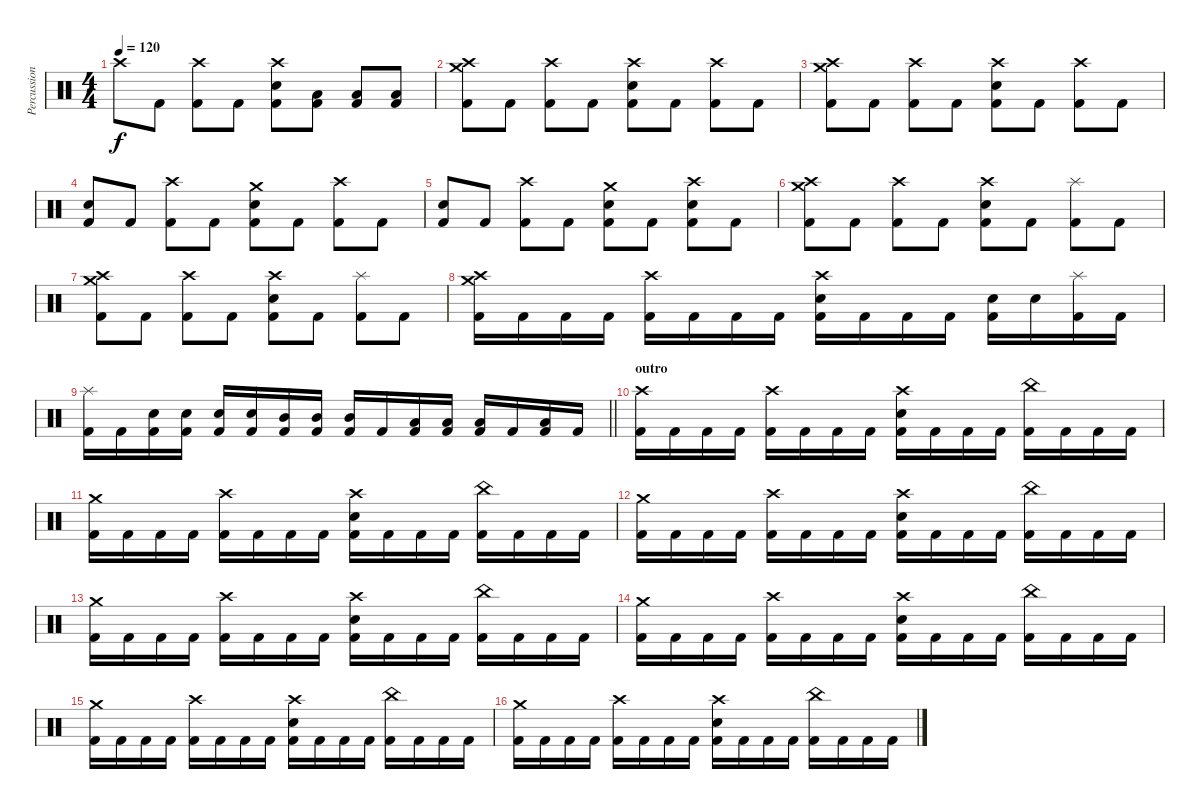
\track ("Percussion" "Percussion") {instrument percussion}
\staff {score}
\articulation defaults
\ts (4 4)
\tempo 120
\clef neutral
\ks c "Crash high (hit)".8{dy f} "Kick (hit) 2".8
("Crash high (hit)" "Kick (hit) 2").8 "Kick (hit) 2".8 ("Crash high (hit)" "Electric Snare (hit)" "Kick (hit) 2").8 ("Low Tom (hit)" "Kick (hit) 2").8 ("Low Tom (hit)" "Kick (hit) 2").8 ("Low Tom (hit)" "Kick (hit) 2").8 |
("Crash high (hit)" "Crash medium (hit)" "Kick (hit) 2").8 "Kick (hit) 2".8 ("Crash high (hit)" "Kick (hit) 2").8 "Kick (hit) 2".8 ("Crash high (hit)" "Electric Snare (hit)" "Kick (hit) 2").8 "Kick (hit) 2".8 ("Crash high (hit)" "Kick (hit) 2").8 "Kick (hit) 2".8 |
("Crash high (hit)" "Crash medium (hit)" "Kick (hit) 2").8 "Kick (hit) 2".8 ("Crash high (hit)" "Kick (hit) 2").8 "Kick (hit) 2".8 ("Crash high (hit)" "Electric Snare (hit)" "Kick (hit) 2").8 "Kick (hit) 2".8 ("Crash high (hit)" "Kick (hit) 2").8 "Kick (hit) 2".8 |
("Electric Snare (hit)" "Kick (hit) 2").8 "Kick (hit) 2".8 ("Crash high (hit)" "Kick (hit) 2").8 "Kick (hit) 2".8 ("Crash medium (hit)" "Electric Snare (hit)" "Kick (hit) 2").8 "Kick (hit) 2".8 ("Kick (hit) 2" "Crash high (hit)").8 "Kick (hit) 2".8 |
("Electric Snare (hit)" "Kick (hit) 2").8 "Kick (hit) 2".8 ("Crash high (hit)" "Kick (hit) 2").8 "Kick (hit) 2".8 ("Crash medium (hit)" "Electric Snare (hit)" "Kick (hit) 2").8 "Kick (hit) 2".8 ("Electric Snare (hit)" "Kick (hit) 2" "Crash high (hit)").8 "Kick (hit) 2".8 |
("Crash high (hit)" "Crash medium (hit)" "Kick (hit) 2").8 "Kick (hit) 2".8 ("Crash high (hit)" "Kick (hit) 2").8 "Kick (hit) 2".8 ("Crash high (hit)" "Electric Snare (hit)" "Kick (hit) 2").8 "Kick (hit) 2".8 ("Splash (hit)" "Kick (hit) 2").8 "Kick (hit) 2".8 |
("Crash high (hit)" "Crash medium (hit)" "Kick (hit) 2").8 "Kick (hit) 2".8 ("Crash high (hit)" "Kick (hit) 2").8 "Kick (hit) 2".8 ("Crash high (hit)" "Electric Snare (hit)" "Kick (hit) 2").8 "Kick (hit) 2".8 ("Splash (hit)" "Kick (hit) 2").8 "Kick (hit) 2".8 |
("Crash high (hit)" "Crash medium (hit)" "Kick (hit) 2").16 "Kick (hit) 2".16 "Kick (hit) 2".16 "Kick (hit) 2".16 ("Crash high (hit)" "Kick (hit) 2").16 "Kick (hit) 2".16 "Kick (hit) 2".16 "Kick (hit) 2".16 ("Crash high (hit)" "Electric Snare (hit)" "Kick (hit) 2").16 "Kick (hit) 2".16 "Kick (hit) 2".16 "Kick (hit) 2".16 ("Electric Snare (hit)" "Kick (hit) 2").16 "Electric Snare (hit)".16 ("Splash (hit)" "Kick (hit) 2").16 "Kick (hit) 2".16 |
\barLineRight lightlight
("Splash (hit)" "Kick (hit) 2").16 "Kick (hit) 2".16 ("Electric Snare (hit)" "Kick (hit) 2").16 ("Electric Snare (hit)" "Kick (hit) 2").16 ("Electric Snare (hit)" "Kick (hit) 2").16 ("Electric Snare (hit)" "Kick (hit) 2").16 ("Mid Tom (hit)" "Kick (hit) 2").16 ("Mid Tom (hit)" "Kick (hit) 2").16 ("Mid Tom (hit)" "Kick (hit) 2").16 "Kick (hit) 2".16 ("Low Tom (hit)" "Kick (hit) 2").16 ("Low Tom (hit)" "Kick (hit) 2").16 ("Low Tom (hit)" "Kick (hit) 2").16 "Kick (hit) 2".16 ("Low Tom (hit)" "Kick (hit) 2").16 "Kick (hit) 2".16 |
\section ("" "outro")
("Crash high (hit)" "Kick (hit) 2").16 "Kick (hit) 2".16 "Kick (hit) 2".16 "Kick (hit) 2".16 ("Crash high (hit)" "Kick (hit) 2").16 "Kick (hit) 2".16 "Kick (hit) 2".16 "Kick (hit) 2".16 ("Crash high (hit)" "Electric Snare (hit)" "Kick (hit) 2").16 "Kick (hit) 2".16 "Kick (hit) 2".16 "Kick (hit) 2".16 ("China (hit)" "Kick (hit) 2").16 "Kick (hit) 2".16 "Kick (hit) 2".16 "Kick (hit) 2".16 |
("Crash medium (hit)" "Kick (hit) 2").16 "Kick (hit) 2".16 "Kick (hit) 2".16 "Kick (hit) 2".16 ("Crash high (hit)" "Kick (hit) 2").16 "Kick (hit) 2".16 "Kick (hit) 2".16 "Kick (hit) 2".16 ("Crash high (hit)" "Electric Snare (hit)" "Kick (hit) 2").16 "Kick (hit) 2".16 "Kick (hit) 2".16 "Kick (hit) 2".16 ("China (hit)" "Kick (hit) 2").16 "Kick (hit) 2".16 "Kick (hit) 2".16 "Kick (hit) 2".16 |
("Crash medium (hit)" "Kick (hit) 2").16 "Kick (hit) 2".16 "Kick (hit) 2".16 "Kick (hit) 2".16 ("Crash high (hit)" "Kick (hit) 2").16 "Kick (hit) 2".16 "Kick (hit) 2".16 "Kick (hit) 2".16 ("Crash high (hit)" "Electric Snare (hit)" "Kick (hit) 2").16 "Kick (hit) 2".16 "Kick (hit) 2".16 "Kick (hit) 2".16 ("China (hit)" "Kick (hit) 2").16 "Kick (hit) 2".16 "Kick (hit) 2".16 "Kick (hit) 2".16 |
("Crash medium (hit)" "Kick (hit) 2").16 "Kick (hit) 2".16 "Kick (hit) 2".16 "Kick (hit) 2".16 ("Crash high (hit)" "Kick (hit) 2").16 "Kick (hit) 2".16 "Kick (hit) 2".16 "Kick (hit) 2".16 ("Crash high (hit)" "Electric Snare (hit)" "Kick (hit) 2").16 "Kick (hit) 2".16 "Kick (hit) 2".16 "Kick (hit) 2".16 ("China (hit)" "Kick (hit) 2").16 "Kick (hit) 2".16 "Kick (hit) 2".16 "Kick (hit) 2".16 |
("Crash medium (hit)" "Kick (hit) 2").16 "Kick (hit) 2".16 "Kick (hit) 2".16 "Kick (hit) 2".16 ("Crash high (hit)" "Kick (hit) 2").16 "Kick (hit) 2".16 "Kick (hit) 2".16 "Kick (hit) 2".16 ("Crash high (hit)" "Electric Snare (hit)" "Kick (hit) 2").16 "Kick (hit) 2".16 "Kick (hit) 2".16 "Kick (hit) 2".16 ("China (hit)" "Kick (hit) 2").16 "Kick (hit) 2".16 "Kick (hit) 2".16 "Kick (hit) 2".16 |
("Crash medium (hit)" "Kick (hit) 2").16 "Kick (hit) 2".16 "Kick (hit) 2".16 "Kick (hit) 2".16 ("Crash high (hit)" "Kick (hit) 2").16 "Kick (hit) 2".16 "Kick (hit) 2".16 "Kick (hit) 2".16 ("Crash high (hit)" "Electric Snare (hit)" "Kick (hit) 2").16 "Kick (hit) 2".16 "Kick (hit) 2".16 "Kick (hit) 2".16 ("China (hit)" "Kick (hit) 2").16 "Kick (hit) 2".16 "Kick (hit) 2".16 "Kick (hit) 2".16 |
("Crash medium (hit)" "Kick (hit) 2").16 "Kick (hit) 2".16 "Kick (hit) 2".16 "Kick (hit) 2".16 ("Crash high (hit)" "Kick (hit) 2").16 "Kick (hit) 2".16 "Kick (hit) 2".16 "Kick (hit) 2".16 ("Crash high (hit)" "Electric Snare (hit)" "Kick (hit) 2").16 "Kick (hit) 2".16 "Kick (hit) 2".16 "Kick (hit) 2".16 ("China (hit)" "Kick (hit) 2").16 "Kick (hit) 2".16 "Kick (hit) 2".16 "Kick (hit) 2".16
